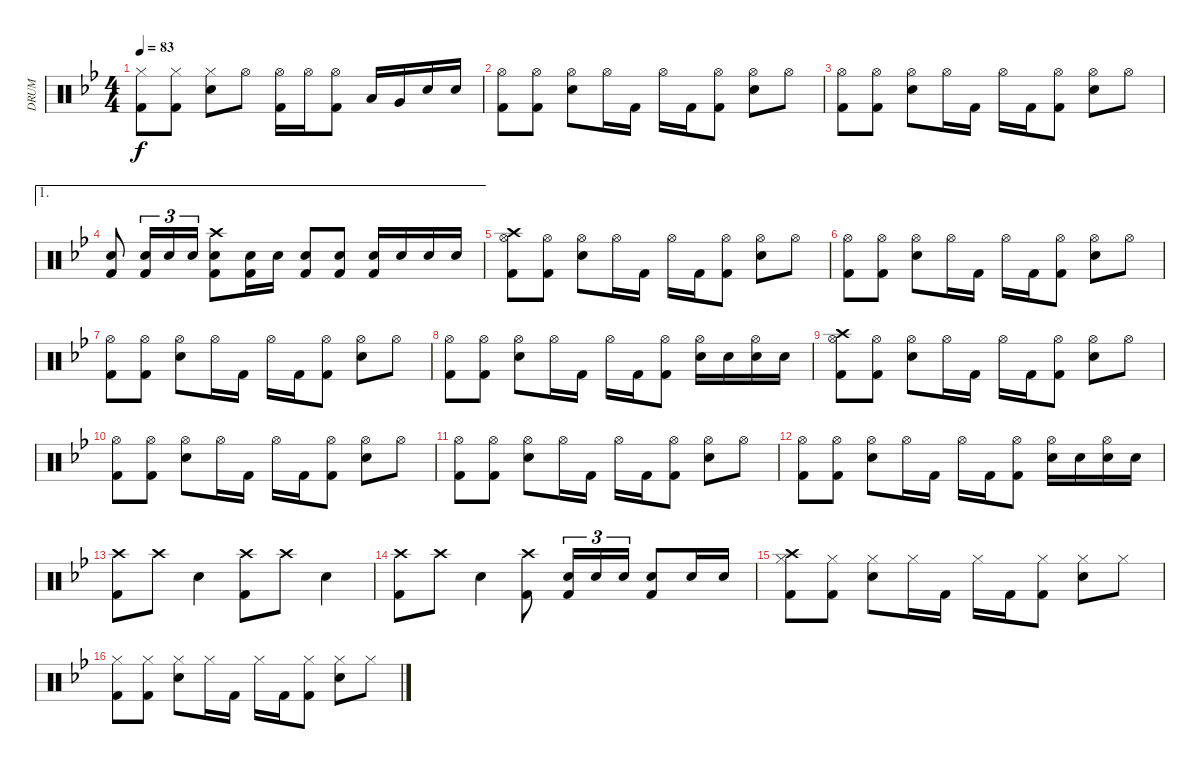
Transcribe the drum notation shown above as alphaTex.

\track ("DRUM" "DRUM") {instrument percussion}
\staff {score}
\articulation defaults
\ts (4 4)
\tempo 83
\clef neutral
\ks gminor
("Hi-Hat (closed)" "Kick (hit) 2").8{dy f} ("Hi-Hat (closed)" "Kick (hit) 2").8 ("Hi-Hat (closed)" "Electric Snare (hit)").8 "Hi-Hat (open)".8 ("Hi-Hat (open)" "Kick (hit) 2").16 "Hi-Hat (open)".16 ("Hi-Hat (open)" "Kick (hit) 2").8 "Low Tom (hit)".16 "Very Low Tom (hit)".16 "Electric Snare (hit)".16 "Electric Snare (hit)".16 |
("Hi-Hat (open)" "Kick (hit) 2").8 ("Hi-Hat (open)" "Kick (hit) 2").8 ("Hi-Hat (open)" "Electric Snare (hit)").8 "Hi-Hat (open)".16 "Kick (hit) 2".16 "Hi-Hat (open)".16 "Kick (hit) 2".16 ("Hi-Hat (open)" "Kick (hit) 2").8 ("Hi-Hat (open)" "Electric Snare (hit)").8 "Hi-Hat (open)".8 |
("Hi-Hat (open)" "Kick (hit) 2").8 ("Hi-Hat (open)" "Kick (hit) 2").8 ("Hi-Hat (open)" "Electric Snare (hit)").8 "Hi-Hat (open)".16 "Kick (hit) 2".16 "Hi-Hat (open)".16 "Kick (hit) 2".16 ("Hi-Hat (open)" "Kick (hit) 2").8 ("Hi-Hat (open)" "Electric Snare (hit)").8 "Hi-Hat (open)".8 |
\ae 1
("Electric Snare (hit)" "Kick (hit) 2").8 ("Electric Snare (hit)" "Kick (hit) 2").16{tu (3 2)} "Electric Snare (hit)".16{tu (3 2)} "Electric Snare (hit)".16{tu (3 2)} ("Electric Snare (hit)" "Crash high (hit)" "Kick (hit) 2").8 ("Electric Snare (hit)" "Kick (hit) 2").16 "Electric Snare (hit)".16 ("Electric Snare (hit)" "Kick (hit) 2").8 ("Electric Snare (hit)" "Kick (hit) 2").8 ("Electric Snare (hit)" "Kick (hit) 2").16 "Electric Snare (hit)".16 "Electric Snare (hit)".16 "Electric Snare (hit)".16 |
("Hi-Hat (open)" "Crash high (hit)" "Kick (hit) 2").8 ("Hi-Hat (open)" "Kick (hit) 2").8 ("Hi-Hat (open)" "Electric Snare (hit)").8 "Hi-Hat (open)".16 "Kick (hit) 2".16 "Hi-Hat (open)".16 "Kick (hit) 2".16 ("Hi-Hat (open)" "Kick (hit) 2").8 ("Hi-Hat (open)" "Electric Snare (hit)").8 "Hi-Hat (open)".8 |
("Hi-Hat (open)" "Kick (hit) 2").8 ("Hi-Hat (open)" "Kick (hit) 2").8 ("Hi-Hat (open)" "Electric Snare (hit)").8 "Hi-Hat (open)".16 "Kick (hit) 2".16 "Hi-Hat (open)".16 "Kick (hit) 2".16 ("Hi-Hat (open)" "Kick (hit) 2").8 ("Hi-Hat (open)" "Electric Snare (hit)").8 "Hi-Hat (open)".8 |
("Hi-Hat (open)" "Kick (hit) 2").8 ("Hi-Hat (open)" "Kick (hit) 2").8 ("Hi-Hat (open)" "Electric Snare (hit)").8 "Hi-Hat (open)".16 "Kick (hit) 2".16 "Hi-Hat (open)".16 "Kick (hit) 2".16 ("Hi-Hat (open)" "Kick (hit) 2").8 ("Hi-Hat (open)" "Electric Snare (hit)").8 "Hi-Hat (open)".8 |
("Hi-Hat (open)" "Kick (hit) 2").8 ("Hi-Hat (open)" "Kick (hit) 2").8 ("Hi-Hat (open)" "Electric Snare (hit)").8 "Hi-Hat (open)".16 "Kick (hit) 2".16 "Hi-Hat (open)".16 "Kick (hit) 2".16 ("Hi-Hat (open)" "Kick (hit) 2").8 ("Hi-Hat (open)" "Electric Snare (hit)").16 "Electric Snare (hit)".16 ("Hi-Hat (open)" "Electric Snare (hit)").16 "Electric Snare (hit)".16 |
("Hi-Hat (open)" "Crash high (hit)" "Kick (hit) 2").8 ("Hi-Hat (open)" "Kick (hit) 2").8 ("Hi-Hat (open)" "Electric Snare (hit)").8 "Hi-Hat (open)".16 "Kick (hit) 2".16 "Hi-Hat (open)".16 "Kick (hit) 2".16 ("Hi-Hat (open)" "Kick (hit) 2").8 ("Hi-Hat (open)" "Electric Snare (hit)").8 "Hi-Hat (open)".8 |
("Hi-Hat (open)" "Kick (hit) 2").8 ("Hi-Hat (open)" "Kick (hit) 2").8 ("Hi-Hat (open)" "Electric Snare (hit)").8 "Hi-Hat (open)".16 "Kick (hit) 2".16 "Hi-Hat (open)".16 "Kick (hit) 2".16 ("Hi-Hat (open)" "Kick (hit) 2").8 ("Hi-Hat (open)" "Electric Snare (hit)").8 "Hi-Hat (open)".8 |
("Hi-Hat (open)" "Kick (hit) 2").8 ("Hi-Hat (open)" "Kick (hit) 2").8 ("Hi-Hat (open)" "Electric Snare (hit)").8 "Hi-Hat (open)".16 "Kick (hit) 2".16 "Hi-Hat (open)".16 "Kick (hit) 2".16 ("Hi-Hat (open)" "Kick (hit) 2").8 ("Hi-Hat (open)" "Electric Snare (hit)").8 "Hi-Hat (open)".8 |
("Hi-Hat (open)" "Kick (hit) 2").8 ("Hi-Hat (open)" "Kick (hit) 2").8 ("Hi-Hat (open)" "Electric Snare (hit)").8 "Hi-Hat (open)".16 "Kick (hit) 2".16 "Hi-Hat (open)".16 "Kick (hit) 2".16 ("Hi-Hat (open)" "Kick (hit) 2").8 ("Hi-Hat (open)" "Electric Snare (hit)").16 "Electric Snare (hit)".16 ("Hi-Hat (open)" "Electric Snare (hit)").16 "Electric Snare (hit)".16 |
("Crash high (hit)" "Kick (hit) 2").8 "Crash high (hit)".8 "Electric Snare (hit)".4 ("Crash high (hit)" "Kick (hit) 2").8 "Crash high (hit)".8 "Electric Snare (hit)".4 |
("Crash high (hit)" "Kick (hit) 2").8 "Crash high (hit)".8 "Electric Snare (hit)".4 ("Crash high (hit)" "Kick (hit) 2").8 ("Electric Snare (hit)" "Kick (hit) 2").16{tu (3 2)} "Electric Snare (hit)".16{tu (3 2)} "Electric Snare (hit)".16{tu (3 2)} ("Electric Snare (hit)" "Kick (hit) 2").8 "Electric Snare (hit)".16 "Electric Snare (hit)".16 |
("Hi-Hat (closed)" "Crash high (hit)" "Kick (hit) 2").8 ("Hi-Hat (closed)" "Kick (hit) 2").8 ("Hi-Hat (closed)" "Electric Snare (hit)").8 "Hi-Hat (closed)".16 "Kick (hit) 2".16 "Hi-Hat (closed)".16 "Kick (hit) 2".16 ("Hi-Hat (closed)" "Kick (hit) 2").8 ("Hi-Hat (closed)" "Electric Snare (hit)").8 "Hi-Hat (closed)".8 |
("Hi-Hat (closed)" "Kick (hit) 2").8 ("Hi-Hat (closed)" "Kick (hit) 2").8 ("Hi-Hat (closed)" "Electric Snare (hit)").8 "Hi-Hat (closed)".16 "Kick (hit) 2".16 "Hi-Hat (closed)".16 "Kick (hit) 2".16 ("Hi-Hat (closed)" "Kick (hit) 2").8 ("Hi-Hat (closed)" "Electric Snare (hit)").8 "Hi-Hat (closed)".8
